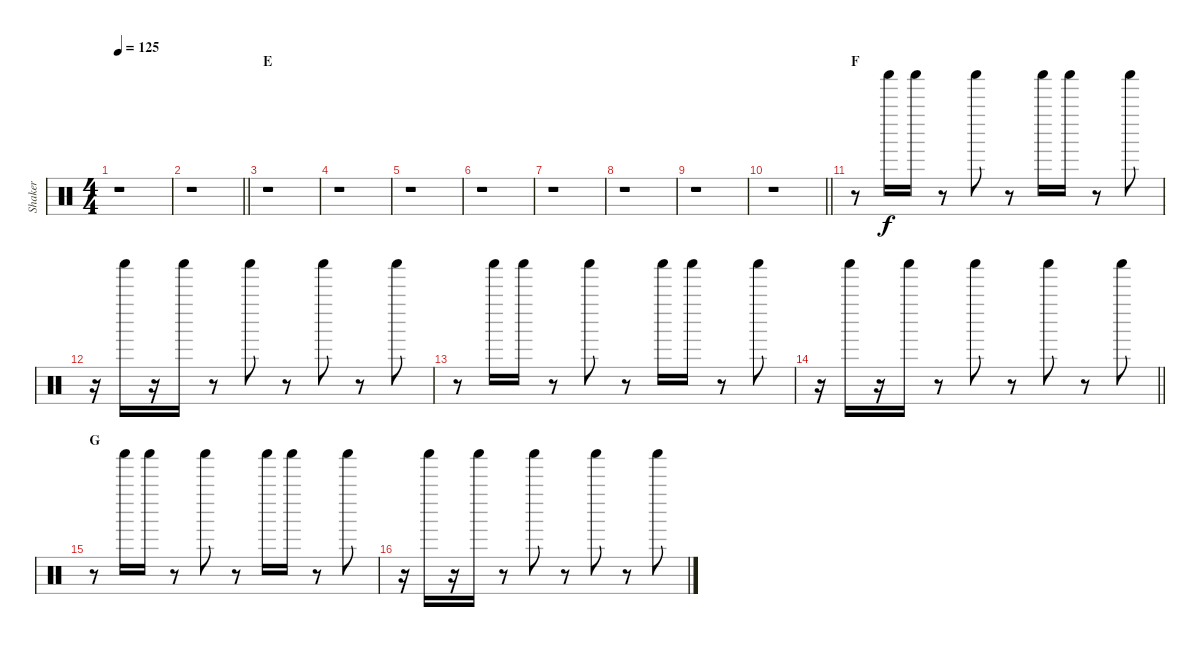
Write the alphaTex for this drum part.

\track ("Shaker" "Shaker") {instrument percussion}
\staff {score}
\articulation defaults
\ts (4 4)
\tempo 125
\clef neutral
\ks c
r.1{dy f} |
\barLineRight lightlight
r.1 |
\section ("" "E")
r.1 |
r.1 |
r.1 |
r.1 |
r.1 |
r.1 |
r.1 |
\barLineRight lightlight
r.1 |
\section ("" "F")
r.8 "Shaker (hit)".16 "Shaker (hit)".16 r.8 "Shaker (hit)".8 r.8 "Shaker (hit)".16 "Shaker (hit)".16 r.8 "Shaker (hit)".8 |
r.16 "Shaker (hit)".16 r.16 "Shaker (hit)".16 r.8 "Shaker (hit)".8 r.8 "Shaker (hit)".8 r.8 "Shaker (hit)".8 |
r.8 "Shaker (hit)".16 "Shaker (hit)".16 r.8 "Shaker (hit)".8 r.8 "Shaker (hit)".16 "Shaker (hit)".16 r.8 "Shaker (hit)".8 |
\barLineRight lightlight
r.16 "Shaker (hit)".16 r.16 "Shaker (hit)".16 r.8 "Shaker (hit)".8 r.8 "Shaker (hit)".8 r.8 "Shaker (hit)".8 |
\section ("" "G")
r.8 "Shaker (hit)".16 "Shaker (hit)".16 r.8 "Shaker (hit)".8 r.8 "Shaker (hit)".16 "Shaker (hit)".16 r.8 "Shaker (hit)".8 |
r.16 "Shaker (hit)".16 r.16 "Shaker (hit)".16 r.8 "Shaker (hit)".8 r.8 "Shaker (hit)".8 r.8 "Shaker (hit)".8
